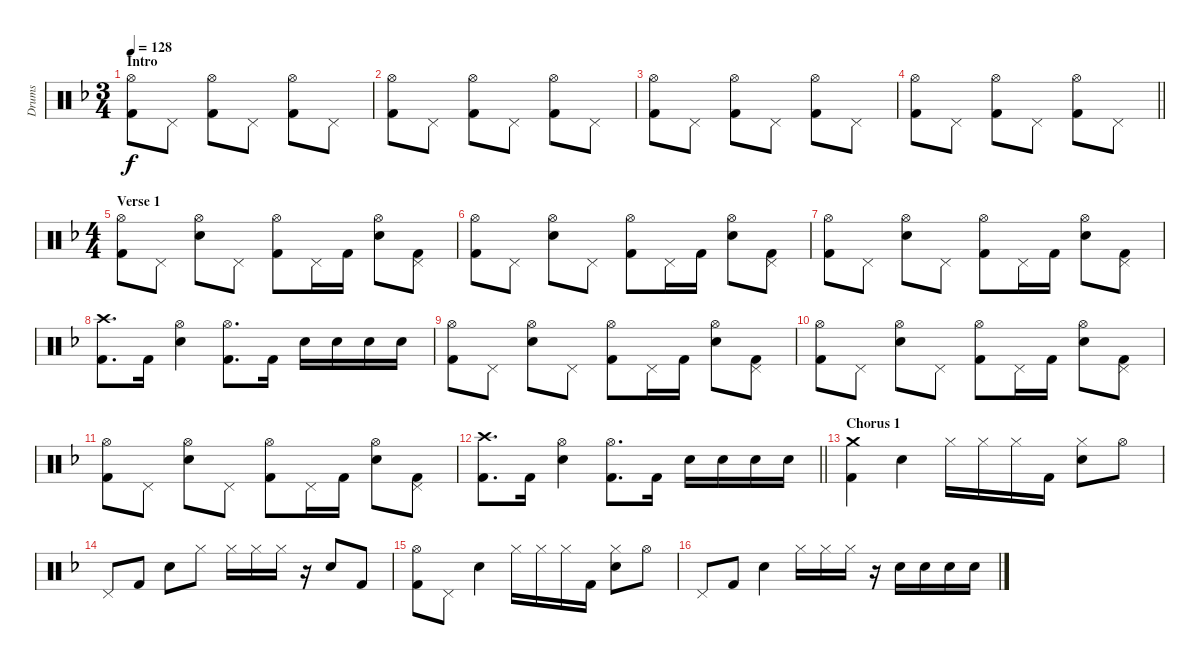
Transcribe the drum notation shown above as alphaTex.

\track ("Drums" "Drums") {instrument percussion}
\staff {score}
\articulation defaults
\ts (3 4)
\section ("" "Intro")
\tempo 128
\clef neutral
\ks f
("Hi-Hat (open)" "Kick (hit) 2").8{dy f} "Pedal Hi-Hat (hit)".8 ("Hi-Hat (open)" "Kick (hit) 2").8 "Pedal Hi-Hat (hit)".8 ("Hi-Hat (open)" "Kick (hit) 2").8 "Pedal Hi-Hat (hit)".8 |
("Hi-Hat (open)" "Kick (hit) 2").8 "Pedal Hi-Hat (hit)".8 ("Hi-Hat (open)" "Kick (hit) 2").8 "Pedal Hi-Hat (hit)".8 ("Hi-Hat (open)" "Kick (hit) 2").8 "Pedal Hi-Hat (hit)".8 |
("Hi-Hat (open)" "Kick (hit) 2").8 "Pedal Hi-Hat (hit)".8 ("Hi-Hat (open)" "Kick (hit) 2").8 "Pedal Hi-Hat (hit)".8 ("Hi-Hat (open)" "Kick (hit) 2").8 "Pedal Hi-Hat (hit)".8 |
\barLineRight lightlight
("Hi-Hat (open)" "Kick (hit) 2").8 "Pedal Hi-Hat (hit)".8 ("Hi-Hat (open)" "Kick (hit) 2").8 "Pedal Hi-Hat (hit)".8 ("Hi-Hat (open)" "Kick (hit) 2").8 "Pedal Hi-Hat (hit)".8 |
\ts (4 4)
\section ("" "Verse 1")
("Hi-Hat (open)" "Kick (hit) 2").8 "Pedal Hi-Hat (hit)".8 ("Hi-Hat (open)" "Electric Snare (hit)").8 "Pedal Hi-Hat (hit)".8 ("Hi-Hat (open)" "Kick (hit) 2").8 "Pedal Hi-Hat (hit)".16 "Kick (hit) 2".16 ("Hi-Hat (open)" "Electric Snare (hit)").8 ("Pedal Hi-Hat (hit)" "Kick (hit) 2").8 |
("Hi-Hat (open)" "Kick (hit) 2").8 "Pedal Hi-Hat (hit)".8 ("Hi-Hat (open)" "Electric Snare (hit)").8 "Pedal Hi-Hat (hit)".8 ("Hi-Hat (open)" "Kick (hit) 2").8 "Pedal Hi-Hat (hit)".16 "Kick (hit) 2".16 ("Hi-Hat (open)" "Electric Snare (hit)").8 ("Pedal Hi-Hat (hit)" "Kick (hit) 2").8 |
("Hi-Hat (open)" "Kick (hit) 2").8 "Pedal Hi-Hat (hit)".8 ("Hi-Hat (open)" "Electric Snare (hit)").8 "Pedal Hi-Hat (hit)".8 ("Hi-Hat (open)" "Kick (hit) 2").8 "Pedal Hi-Hat (hit)".16 "Kick (hit) 2".16 ("Hi-Hat (open)" "Electric Snare (hit)").8 ("Pedal Hi-Hat (hit)" "Kick (hit) 2").8 |
("Crash high (hit)" "Kick (hit) 2").8{d} "Kick (hit) 2".16 ("Hi-Hat (open)" "Electric Snare (hit)").4 ("Hi-Hat (open)" "Kick (hit) 2").8{d} "Kick (hit) 2".16 "Electric Snare (hit)".16 "Electric Snare (hit)".16 "Electric Snare (hit)".16 "Electric Snare (hit)".16 |
("Hi-Hat (open)" "Kick (hit) 2").8 "Pedal Hi-Hat (hit)".8 ("Hi-Hat (open)" "Electric Snare (hit)").8 "Pedal Hi-Hat (hit)".8 ("Hi-Hat (open)" "Kick (hit) 2").8 "Pedal Hi-Hat (hit)".16 "Kick (hit) 2".16 ("Hi-Hat (open)" "Electric Snare (hit)").8 ("Pedal Hi-Hat (hit)" "Kick (hit) 2").8 |
("Hi-Hat (open)" "Kick (hit) 2").8 "Pedal Hi-Hat (hit)".8 ("Hi-Hat (open)" "Electric Snare (hit)").8 "Pedal Hi-Hat (hit)".8 ("Hi-Hat (open)" "Kick (hit) 2").8 "Pedal Hi-Hat (hit)".16 "Kick (hit) 2".16 ("Hi-Hat (open)" "Electric Snare (hit)").8 ("Pedal Hi-Hat (hit)" "Kick (hit) 2").8 |
("Hi-Hat (open)" "Kick (hit) 2").8 "Pedal Hi-Hat (hit)".8 ("Hi-Hat (open)" "Electric Snare (hit)").8 "Pedal Hi-Hat (hit)".8 ("Hi-Hat (open)" "Kick (hit) 2").8 "Pedal Hi-Hat (hit)".16 "Kick (hit) 2".16 ("Hi-Hat (open)" "Electric Snare (hit)").8 ("Pedal Hi-Hat (hit)" "Kick (hit) 2").8 |
\barLineRight lightlight
("Crash high (hit)" "Kick (hit) 2").8{d} "Kick (hit) 2".16 ("Hi-Hat (open)" "Electric Snare (hit)").4 ("Hi-Hat (open)" "Kick (hit) 2").8{d} "Kick (hit) 2".16 "Electric Snare (hit)".16 "Electric Snare (hit)".16 "Electric Snare (hit)".16 "Electric Snare (hit)".16 |
\section ("" "Chorus 1")
("Crash medium (hit)" "Kick (hit) 2").4 "Electric Snare (hit)".4 "Hi-Hat (closed)".16 "Hi-Hat (closed)".16 "Hi-Hat (closed)".16 "Kick (hit) 2".16 ("Hi-Hat (closed)" "Electric Snare (hit)").8 "Hi-Hat (open)".8 |
"Pedal Hi-Hat (hit)".8 "Kick (hit) 2".8 "Electric Snare (hit)".8 "Hi-Hat (closed)".8 "Hi-Hat (closed)".16 "Hi-Hat (closed)".16 "Hi-Hat (closed)".16 r.16 "Electric Snare (hit)".8 "Kick (hit) 2".8 |
("Hi-Hat (open)" "Kick (hit) 2").8 "Pedal Hi-Hat (hit)".8 "Electric Snare (hit)".4 "Hi-Hat (closed)".16 "Hi-Hat (closed)".16 "Hi-Hat (closed)".16 "Kick (hit) 2".16 ("Hi-Hat (closed)" "Electric Snare (hit)").8 "Hi-Hat (open)".8 |
"Pedal Hi-Hat (hit)".8 "Kick (hit) 2".8 "Electric Snare (hit)".4 "Hi-Hat (closed)".16 "Hi-Hat (closed)".16 "Hi-Hat (closed)".16 r.16 "Electric Snare (hit)".16 "Electric Snare (hit)".16 "Electric Snare (hit)".16 "Electric Snare (hit)".16
